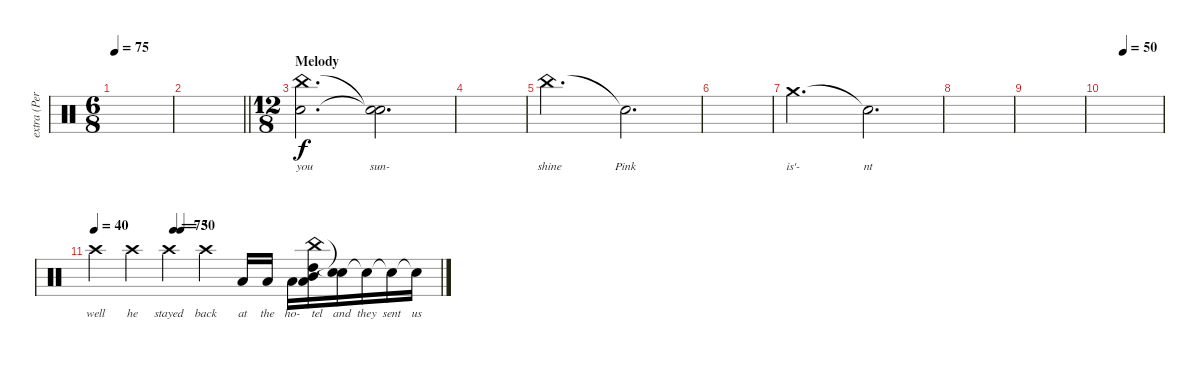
\track ("extra (Percusión)" "extra (Per") {instrument percussion}
\staff {score}
\articulation defaults
\ts (6 8)
\tempo 75
\clef neutral
\ks c
|
\barLineRight lightlight
|
\ts (12 8)
\section ("" "Melody")
("China (hit)" "Electric Snare (hit)").2{d lyrics (0 "you") lyrics (1 "") lyrics (2 "") lyrics (3 "") lyrics (4 "")} ("Snare (hit)"{t} "Snare (hit)"{t}).2{d lyrics (0 "sun-") lyrics (1 "") lyrics (2 "") lyrics (3 "") lyrics (4 "")} |
|
"China (hit)".2{d lyrics (0 "shine") lyrics (1 "") lyrics (2 "") lyrics (3 "") lyrics (4 "")} "Snare (hit)"{t}.2{d lyrics (0 "Pink") lyrics (1 "") lyrics (2 "") lyrics (3 "") lyrics (4 "")} |
|
"Crash medium (hit)".2{d lyrics (0 "is'-") lyrics (1 "") lyrics (2 "") lyrics (3 "") lyrics (4 "")} "Snare (hit)"{t}.2{d lyrics (0 "nt") lyrics (1 "") lyrics (2 "") lyrics (3 "") lyrics (4 "")} |
|
|
\tempo (50 0.3333333333333333)
|
\tempo 40
\tempo (75 0.22916666666666666)
\tempo (30 0.25)
"Crash high (hit)".4{lyrics (0 "well") lyrics (1 "") lyrics (2 "") lyrics (3 "") lyrics (4 "")} "Crash high (hit)".4{lyrics (0 "he") lyrics (1 "") lyrics (2 "") lyrics (3 "") lyrics (4 "")} "Crash high (hit)".4{lyrics (0 "stayed") lyrics (1 "") lyrics (2 "") lyrics (3 "") lyrics (4 "")} "Crash high (hit)".4{lyrics (0 "back") lyrics (1 "") lyrics (2 "") lyrics (3 "") lyrics (4 "")} "Low Tom (hit)".16{lyrics (0 "at") lyrics (1 "") lyrics (2 "") lyrics (3 "") lyrics (4 "")} "Low Tom (hit)".16{lyrics (0 "the") lyrics (1 "") lyrics (2 "") lyrics (3 "") lyrics (4 "")} "Low Floor Tom (hit)".16{lyrics (0 "ho-") lyrics (1 "") lyrics (2 "") lyrics (3 "") lyrics (4 "")} ("China (hit)" "Low Floor Tom (hit)" "Mid Tom (hit)" "High Tom (hit)").16{lyrics (0 "tel") lyrics (1 "") lyrics (2 "") lyrics (3 "") lyrics (4 "")} ("Snare (hit)"{t} "Snare (hit)"{t}).16{lyrics (0 "and") lyrics (1 "") lyrics (2 "") lyrics (3 "") lyrics (4 "")} "Snare (hit)"{t}.16{lyrics (0 "they") lyrics (1 "") lyrics (2 "") lyrics (3 "") lyrics (4 "")} "Snare (hit)"{t}.16{lyrics (0 "sent") lyrics (1 "") lyrics (2 "") lyrics (3 "") lyrics (4 "")} "Snare (hit)"{t}.16{lyrics (0 "us") lyrics (1 "") lyrics (2 "") lyrics (3 "") lyrics (4 "")}
